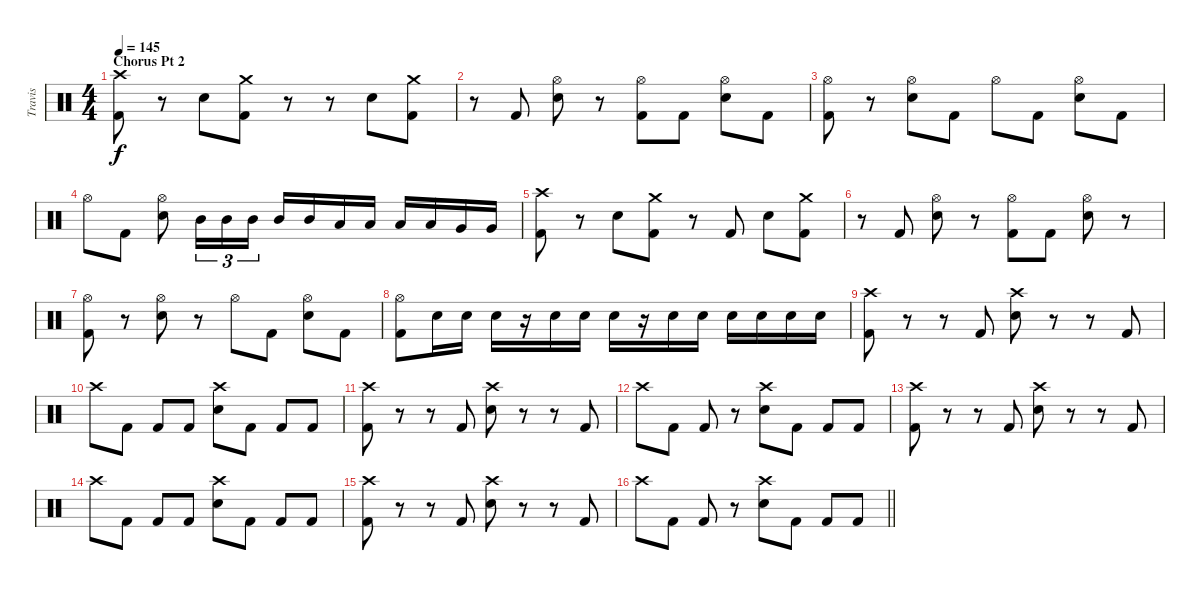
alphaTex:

\track ("Travis" "Travis") {instrument percussion}
\staff {score}
\articulation defaults
\ts (4 4)
\section ("" "Chorus Pt 2")
\tempo 145
\clef neutral
\ks c
("Crash high (hit)" "Kick (hit) 2").8{dy f} r.8 "Electric Snare (hit)".8 ("Crash medium (hit)" "Kick (hit) 2").8 r.8 r.8 "Electric Snare (hit)".8 ("Crash medium (hit)" "Kick (hit) 2").8 |
r.8 "Kick (hit) 2".8 ("Hi-Hat (open)" "Electric Snare (hit)").8 r.8 ("Hi-Hat (open)" "Kick (hit) 2").8 "Kick (hit) 2".8 ("Hi-Hat (open)" "Electric Snare (hit)").8 "Kick (hit) 2".8 |
("Hi-Hat (open)" "Kick (hit) 2").8 r.8 ("Hi-Hat (open)" "Electric Snare (hit)").8 "Kick (hit) 2".8 "Hi-Hat (open)".8 "Kick (hit) 2".8 ("Hi-Hat (open)" "Electric Snare (hit)").8 "Kick (hit) 2".8 |
"Hi-Hat (open)".8 "Kick (hit) 2".8 ("Hi-Hat (open)" "Electric Snare (hit)").8 "Mid Tom (hit)".16{tu (3 2)} "Mid Tom (hit)".16{tu (3 2)} "Mid Tom (hit)".16{tu (3 2)} "Mid Tom (hit)".16 "Mid Tom (hit)".16 "Low Tom (hit)".16 "Low Tom (hit)".16 "Low Tom (hit)".16 "Low Tom (hit)".16 "Very Low Tom (hit)".16 "Very Low Tom (hit)".16 |
("Crash high (hit)" "Kick (hit) 2").8 r.8 "Electric Snare (hit)".8 ("Crash medium (hit)" "Kick (hit) 2").8 r.8 "Kick (hit) 2".8 "Electric Snare (hit)".8 ("Crash medium (hit)" "Kick (hit) 2").8 |
r.8 "Kick (hit) 2".8 ("Hi-Hat (open)" "Electric Snare (hit)").8 r.8 ("Hi-Hat (open)" "Kick (hit) 2").8 "Kick (hit) 2".8 ("Hi-Hat (open)" "Electric Snare (hit)").8 r.8 |
("Hi-Hat (open)" "Kick (hit) 2").8 r.8 ("Hi-Hat (open)" "Electric Snare (hit)").8 r.8 "Hi-Hat (open)".8 "Kick (hit) 2".8 ("Hi-Hat (open)" "Electric Snare (hit)").8 "Kick (hit) 2".8 |
("Hi-Hat (open)" "Kick (hit) 2").8 "Electric Snare (hit)".16 "Electric Snare (hit)".16 "Electric Snare (hit)".16 r.16 "Electric Snare (hit)".16 "Electric Snare (hit)".16 "Electric Snare (hit)".16 r.16 "Electric Snare (hit)".16 "Electric Snare (hit)".16 "Electric Snare (hit)".16 "Electric Snare (hit)".16 "Electric Snare (hit)".16 "Electric Snare (hit)".16 |
("Crash high (hit)" "Kick (hit) 2").8 r.8 r.8 "Kick (hit) 2".8 ("Crash high (hit)" "Electric Snare (hit)").8 r.8 r.8 "Kick (hit) 2".8 |
"Crash high (hit)".8 "Kick (hit) 2".8 "Kick (hit) 2".8 "Kick (hit) 2".8 ("Crash high (hit)" "Electric Snare (hit)").8 "Kick (hit) 2".8 "Kick (hit) 2".8 "Kick (hit) 2".8 |
("Crash high (hit)" "Kick (hit) 2").8 r.8 r.8 "Kick (hit) 2".8 ("Crash high (hit)" "Electric Snare (hit)").8 r.8 r.8 "Kick (hit) 2".8 |
"Crash high (hit)".8 "Kick (hit) 2".8 "Kick (hit) 2".8 r.8 ("Crash high (hit)" "Electric Snare (hit)").8 "Kick (hit) 2".8 "Kick (hit) 2".8 "Kick (hit) 2".8 |
("Crash high (hit)" "Kick (hit) 2").8 r.8 r.8 "Kick (hit) 2".8 ("Crash high (hit)" "Electric Snare (hit)").8 r.8 r.8 "Kick (hit) 2".8 |
"Crash high (hit)".8 "Kick (hit) 2".8 "Kick (hit) 2".8 "Kick (hit) 2".8 ("Crash high (hit)" "Electric Snare (hit)").8 "Kick (hit) 2".8 "Kick (hit) 2".8 "Kick (hit) 2".8 |
("Crash high (hit)" "Kick (hit) 2").8 r.8 r.8 "Kick (hit) 2".8 ("Crash high (hit)" "Electric Snare (hit)").8 r.8 r.8 "Kick (hit) 2".8 |
\barLineRight lightlight "Crash high (hit)".8 "Kick (hit) 2".8 "Kick (hit) 2".8
r.8 ("Crash high (hit)" "Electric Snare (hit)").8 "Kick (hit) 2".8 "Kick (hit) 2".8 "Kick (hit) 2".8
